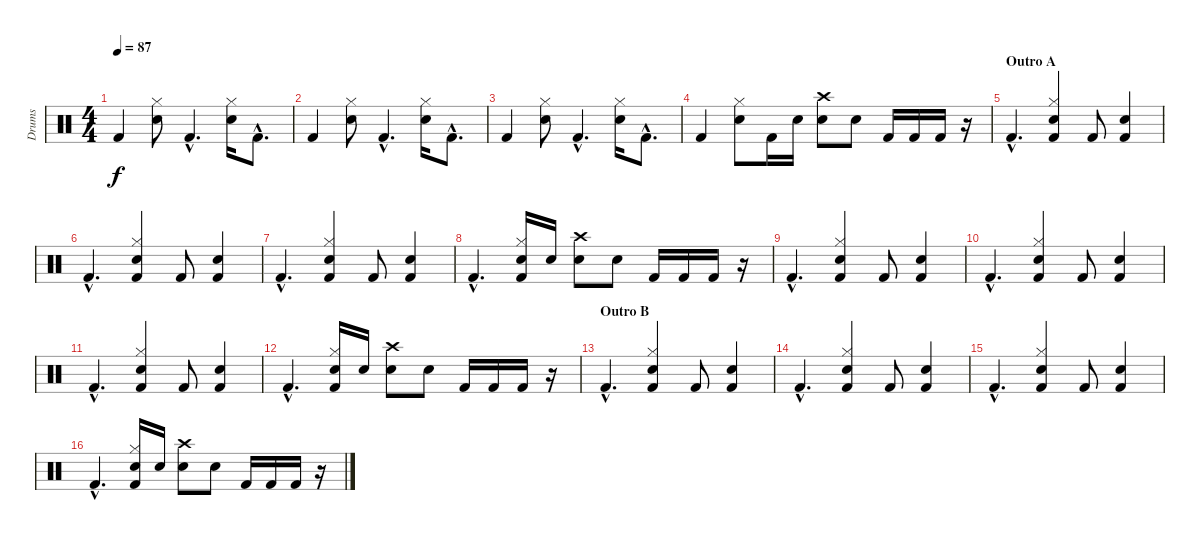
\track ("Drums" "Drums") {instrument percussion}
\staff {score}
\articulation defaults
\ts (4 4)
\tempo 87
\clef neutral
\ks c "Kick (hit) 2".4{dy f}
("Hi-Hat (closed)" "Electric Snare (hit)").8 "Kick (hit) 2"{hac}.4{d} ("Hi-Hat (closed)" "Electric Snare (hit)").16 "Kick (hit) 2"{hac}.8{d} |
"Kick (hit) 2".4 ("Hi-Hat (closed)" "Electric Snare (hit)").8 "Kick (hit) 2"{hac}.4{d} ("Hi-Hat (closed)" "Electric Snare (hit)").16 "Kick (hit) 2"{hac}.8{d} |
"Kick (hit) 2".4 ("Hi-Hat (closed)" "Electric Snare (hit)").8 "Kick (hit) 2"{hac}.4{d} ("Hi-Hat (closed)" "Electric Snare (hit)").16 "Kick (hit) 2"{hac}.8{d} |
"Kick (hit) 2".4 ("Hi-Hat (closed)" "Electric Snare (hit)").8 "Kick (hit) 2".16 "Electric Snare (hit)".16 ("Crash high (hit)" "Electric Snare (hit)").8 "Snare (hit) 2".8 "Kick (hit) 2".16 "Kick (hit) 2".16 "Kick (hit) 2".16 r.16 |
\section ("" "Outro A")
"Kick (hit) 2"{hac}.4{d} ("Hi-Hat (closed)" "Electric Snare (hit)" "Kick (hit) 2").4 "Kick (hit) 2".8 ("Electric Snare (hit)" "Kick (hit) 2").4 |
"Kick (hit) 2"{hac}.4{d} ("Hi-Hat (closed)" "Electric Snare (hit)" "Kick (hit) 2").4 "Kick (hit) 2".8 ("Electric Snare (hit)" "Kick (hit) 2").4 |
"Kick (hit) 2"{hac}.4{d} ("Hi-Hat (closed)" "Electric Snare (hit)" "Kick (hit) 2").4 "Kick (hit) 2".8 ("Electric Snare (hit)" "Kick (hit) 2").4 |
"Kick (hit) 2"{hac}.4{d} ("Hi-Hat (closed)" "Electric Snare (hit)" "Kick (hit) 2").16 "Electric Snare (hit)".16 ("Crash high (hit)" "Electric Snare (hit)").8 "Snare (hit) 2".8 "Kick (hit) 2".16 "Kick (hit) 2".16 "Kick (hit) 2".16 r.16 |
"Kick (hit) 2"{hac}.4{d} ("Hi-Hat (closed)" "Electric Snare (hit)" "Kick (hit) 2").4 "Kick (hit) 2".8 ("Electric Snare (hit)" "Kick (hit) 2").4 |
"Kick (hit) 2"{hac}.4{d} ("Hi-Hat (closed)" "Electric Snare (hit)" "Kick (hit) 2").4 "Kick (hit) 2".8 ("Electric Snare (hit)" "Kick (hit) 2").4 |
"Kick (hit) 2"{hac}.4{d} ("Hi-Hat (closed)" "Electric Snare (hit)" "Kick (hit) 2").4 "Kick (hit) 2".8 ("Electric Snare (hit)" "Kick (hit) 2").4 |
"Kick (hit) 2"{hac}.4{d} ("Hi-Hat (closed)" "Electric Snare (hit)" "Kick (hit) 2").16 "Electric Snare (hit)".16 ("Crash high (hit)" "Electric Snare (hit)").8 "Snare (hit) 2".8 "Kick (hit) 2".16 "Kick (hit) 2".16 "Kick (hit) 2".16 r.16 |
\section ("" "Outro B")
"Kick (hit) 2"{hac}.4{d} ("Hi-Hat (closed)" "Electric Snare (hit)" "Kick (hit) 2").4 "Kick (hit) 2".8 ("Electric Snare (hit)" "Kick (hit) 2").4 |
"Kick (hit) 2"{hac}.4{d} ("Hi-Hat (closed)" "Electric Snare (hit)" "Kick (hit) 2").4 "Kick (hit) 2".8 ("Electric Snare (hit)" "Kick (hit) 2").4 |
"Kick (hit) 2"{hac}.4{d} ("Hi-Hat (closed)" "Electric Snare (hit)" "Kick (hit) 2").4 "Kick (hit) 2".8 ("Electric Snare (hit)" "Kick (hit) 2").4 |
"Kick (hit) 2"{hac}.4{d} ("Hi-Hat (closed)" "Electric Snare (hit)" "Kick (hit) 2").16 "Electric Snare (hit)".16 ("Crash high (hit)" "Electric Snare (hit)").8 "Snare (hit) 2".8 "Kick (hit) 2".16 "Kick (hit) 2".16 "Kick (hit) 2".16 r.16
